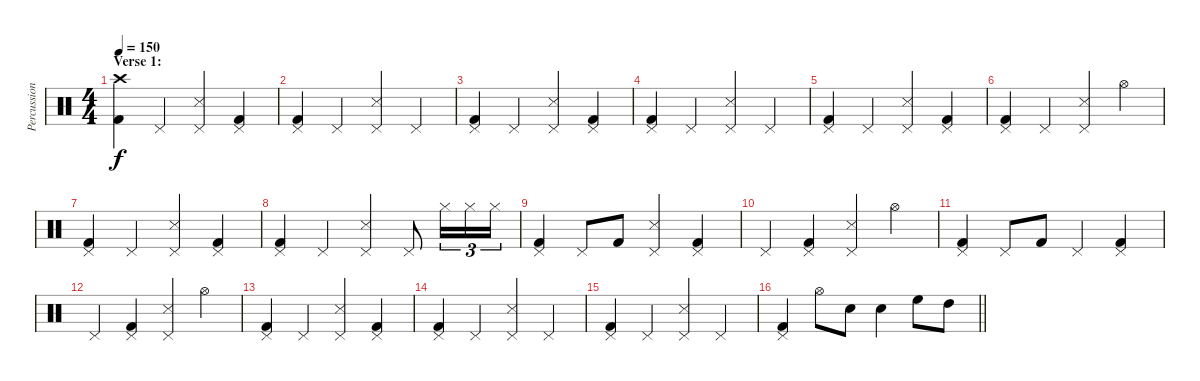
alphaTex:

\track ("Percussion" "Percussion") {instrument percussion}
\staff {score}
\articulation defaults
\ts (4 4)
\section ("" "Verse 1:")
\tempo 150
\clef neutral
\ks c
("Crash high (hit)" "Kick (hit) 2").4{dy f} "Pedal Hi-Hat (hit)".4 ("Pedal Hi-Hat (hit)" "Snare (side stick) 3").4 ("Pedal Hi-Hat (hit)" "Kick (hit) 2").4 |
("Pedal Hi-Hat (hit)" "Kick (hit) 2").4 "Pedal Hi-Hat (hit)".4 ("Pedal Hi-Hat (hit)" "Snare (side stick) 3").4 "Pedal Hi-Hat (hit)".4 |
("Pedal Hi-Hat (hit)" "Kick (hit) 2").4 "Pedal Hi-Hat (hit)".4 ("Pedal Hi-Hat (hit)" "Snare (side stick) 3").4 ("Pedal Hi-Hat (hit)" "Kick (hit) 2").4 |
("Pedal Hi-Hat (hit)" "Kick (hit) 2").4 "Pedal Hi-Hat (hit)".4 ("Pedal Hi-Hat (hit)" "Snare (side stick) 3").4 "Pedal Hi-Hat (hit)".4 |
("Pedal Hi-Hat (hit)" "Kick (hit) 2").4 "Pedal Hi-Hat (hit)".4 ("Pedal Hi-Hat (hit)" "Snare (side stick) 3").4 ("Pedal Hi-Hat (hit)" "Kick (hit) 2").4 |
("Pedal Hi-Hat (hit)" "Kick (hit) 2").4 "Pedal Hi-Hat (hit)".4 ("Pedal Hi-Hat (hit)" "Snare (side stick) 3").4 "Hi-Hat (open)".4 |
("Pedal Hi-Hat (hit)" "Kick (hit) 2").4 "Pedal Hi-Hat (hit)".4 ("Pedal Hi-Hat (hit)" "Snare (side stick) 3").4 ("Pedal Hi-Hat (hit)" "Kick (hit) 2").4 |
("Pedal Hi-Hat (hit)" "Kick (hit) 2").4 "Pedal Hi-Hat (hit)".4 ("Pedal Hi-Hat (hit)" "Snare (side stick) 3").4 "Pedal Hi-Hat (hit)".8 "Hi-Hat (closed)".16{tu (3 2)} "Hi-Hat (closed)".16{tu (3 2)} "Hi-Hat (closed)".16{tu (3 2)} |
("Pedal Hi-Hat (hit)" "Kick (hit) 2").4 "Pedal Hi-Hat (hit)".8 "Kick (hit) 2".8 ("Pedal Hi-Hat (hit)" "Snare (side stick) 3").4 ("Pedal Hi-Hat (hit)" "Kick (hit) 2").4 |
"Pedal Hi-Hat (hit)".4 ("Pedal Hi-Hat (hit)" "Kick (hit) 2").4 ("Pedal Hi-Hat (hit)" "Snare (side stick) 3").4 "Hi-Hat (open)".4 |
("Pedal Hi-Hat (hit)" "Kick (hit) 2").4 "Pedal Hi-Hat (hit)".8 "Kick (hit) 2".8 "Pedal Hi-Hat (hit)".4 ("Pedal Hi-Hat (hit)" "Kick (hit) 2").4 |
"Pedal Hi-Hat (hit)".4 ("Pedal Hi-Hat (hit)" "Kick (hit) 2").4 ("Pedal Hi-Hat (hit)" "Snare (side stick) 3").4 "Hi-Hat (open)".4 |
("Pedal Hi-Hat (hit)" "Kick (hit) 2").4 "Pedal Hi-Hat (hit)".4 ("Pedal Hi-Hat (hit)" "Snare (side stick) 3").4 ("Pedal Hi-Hat (hit)" "Kick (hit) 2").4 |
("Pedal Hi-Hat (hit)" "Kick (hit) 2").4 "Pedal Hi-Hat (hit)".4 ("Pedal Hi-Hat (hit)" "Snare (side stick) 3").4 "Pedal Hi-Hat (hit)".4 |
("Pedal Hi-Hat (hit)" "Kick (hit) 2").4 "Pedal Hi-Hat (hit)".4 ("Pedal Hi-Hat (hit)" "Snare (side stick) 3").4 "Pedal Hi-Hat (hit)".4 |
\barLineRight lightlight
("Pedal Hi-Hat (hit)" "Kick (hit) 2").4 "Hi-Hat (open)".8 "Electric Snare (hit)".8 "Electric Snare (hit)".4 "High Floor Tom (hit)".8 "High Tom (hit)".8
